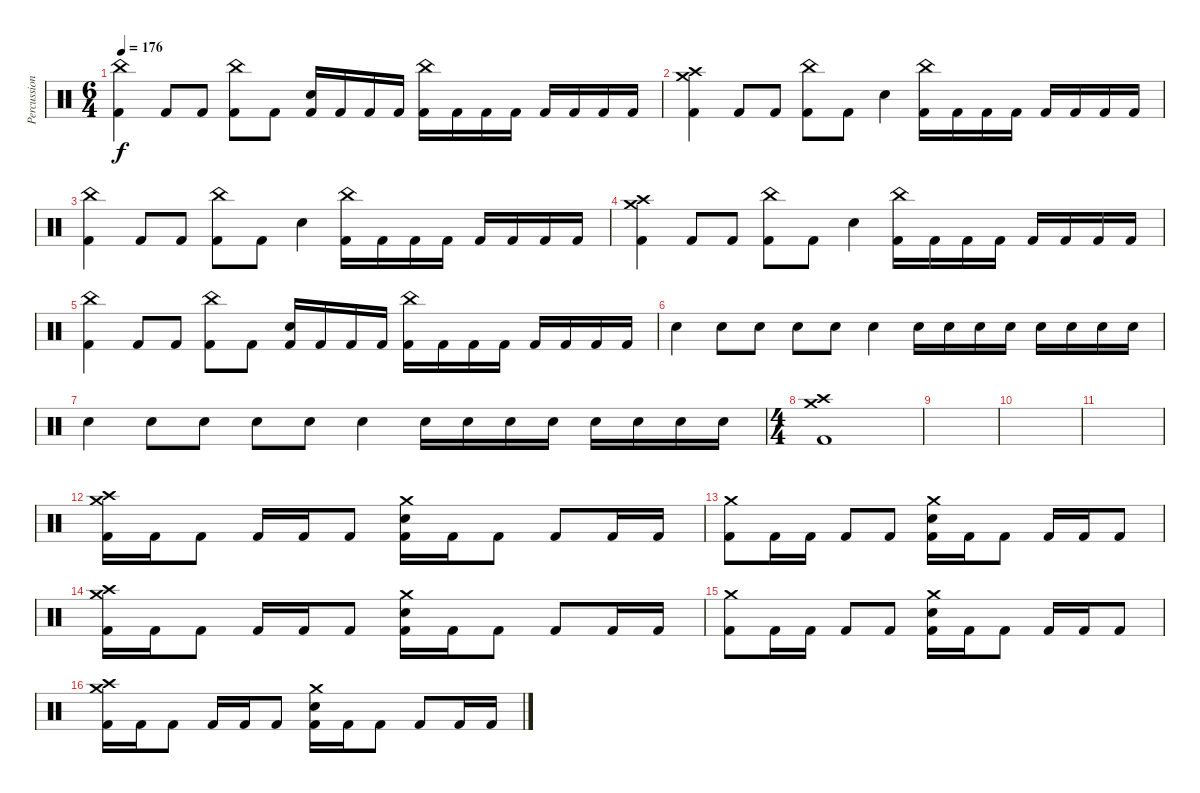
\track ("Percussion" "Percussion") {instrument percussion}
\staff {score}
\articulation defaults
\ts (6 4)
\tempo 176
\clef neutral
\ks c
("China (hit)" "Kick (hit) 2").4{dy f} "Kick (hit) 2".8 "Kick (hit) 2".8 ("China (hit)" "Kick (hit) 2").8 "Kick (hit) 2".8 ("Snare (hit) 2" "Kick (hit) 2").16 "Kick (hit) 2".16 "Kick (hit) 2".16 "Kick (hit) 2".16 ("China (hit)" "Kick (hit) 2").16 "Kick (hit) 2".16 "Kick (hit) 2".16 "Kick (hit) 2".16 "Kick (hit) 2".16 "Kick (hit) 2".16 "Kick (hit) 2".16 "Kick (hit) 2".16 |
("Crash high (hit)" "Crash medium (hit)" "Kick (hit) 2").4 "Kick (hit) 2".8 "Kick (hit) 2".8 ("China (hit)" "Kick (hit) 2").8 "Kick (hit) 2".8 "Snare (hit) 2".4 ("China (hit)" "Kick (hit) 2").16 "Kick (hit) 2".16 "Kick (hit) 2".16 "Kick (hit) 2".16 "Kick (hit) 2".16 "Kick (hit) 2".16 "Kick (hit) 2".16 "Kick (hit) 2".16 |
("China (hit)" "Kick (hit) 2").4 "Kick (hit) 2".8 "Kick (hit) 2".8 ("China (hit)" "Kick (hit) 2").8 "Kick (hit) 2".8 "Snare (hit) 2".4 ("China (hit)" "Kick (hit) 2").16 "Kick (hit) 2".16 "Kick (hit) 2".16 "Kick (hit) 2".16 "Kick (hit) 2".16 "Kick (hit) 2".16 "Kick (hit) 2".16 "Kick (hit) 2".16 |
("Crash high (hit)" "Crash medium (hit)" "Kick (hit) 2").4 "Kick (hit) 2".8 "Kick (hit) 2".8 ("China (hit)" "Kick (hit) 2").8 "Kick (hit) 2".8 "Snare (hit) 2".4 ("China (hit)" "Kick (hit) 2").16 "Kick (hit) 2".16 "Kick (hit) 2".16 "Kick (hit) 2".16 "Kick (hit) 2".16 "Kick (hit) 2".16 "Kick (hit) 2".16 "Kick (hit) 2".16 |
("China (hit)" "Kick (hit) 2").4 "Kick (hit) 2".8 "Kick (hit) 2".8 ("China (hit)" "Kick (hit) 2").8 "Kick (hit) 2".8 ("Snare (hit) 2" "Kick (hit) 2").16 "Kick (hit) 2".16 "Kick (hit) 2".16 "Kick (hit) 2".16 ("China (hit)" "Kick (hit) 2").16 "Kick (hit) 2".16 "Kick (hit) 2".16 "Kick (hit) 2".16 "Kick (hit) 2".16 "Kick (hit) 2".16 "Kick (hit) 2".16 "Kick (hit) 2".16 |
"Snare (hit) 2".4 "Snare (hit) 2".8 "Snare (hit) 2".8 "Snare (hit) 2".8 "Snare (hit) 2".8 "Snare (hit) 2".4 "Snare (hit) 2".16 "Snare (hit) 2".16 "Snare (hit) 2".16 "Snare (hit) 2".16 "Snare (hit) 2".16 "Snare (hit) 2".16 "Snare (hit) 2".16 "Snare (hit) 2".16 |
"Snare (hit) 2".4 "Snare (hit) 2".8 "Snare (hit) 2".8 "Snare (hit) 2".8 "Snare (hit) 2".8 "Snare (hit) 2".4 "Snare (hit) 2".16 "Snare (hit) 2".16 "Snare (hit) 2".16 "Snare (hit) 2".16 "Snare (hit) 2".16 "Snare (hit) 2".16 "Snare (hit) 2".16 "Snare (hit) 2".16 |
\ts (4 4)
("Crash high (hit)" "Crash medium (hit)" "Kick (hit) 2").1 |
|
|
|
("Crash high (hit)" "Crash medium (hit)" "Kick (hit) 2").16 "Kick (hit) 2".16 "Kick (hit) 2".8 "Kick (hit) 2".16 "Kick (hit) 2".16 "Kick (hit) 2".8 ("Crash medium (hit)" "Snare (hit) 2" "Kick (hit) 2").16 "Kick (hit) 2".16 "Kick (hit) 2".8 "Kick (hit) 2".8 "Kick (hit) 2".16 "Kick (hit) 2".16 |
("Crash medium (hit)" "Kick (hit) 2").8 "Kick (hit) 2".16 "Kick (hit) 2".16 "Kick (hit) 2".8 "Kick (hit) 2".8 ("Crash medium (hit)" "Snare (hit) 2" "Kick (hit) 2").16 "Kick (hit) 2".16 "Kick (hit) 2".8 "Kick (hit) 2".16 "Kick (hit) 2".16 "Kick (hit) 2".8 |
("Crash high (hit)" "Crash medium (hit)" "Kick (hit) 2").16 "Kick (hit) 2".16 "Kick (hit) 2".8 "Kick (hit) 2".16 "Kick (hit) 2".16 "Kick (hit) 2".8 ("Crash medium (hit)" "Snare (hit) 2" "Kick (hit) 2").16 "Kick (hit) 2".16 "Kick (hit) 2".8 "Kick (hit) 2".8 "Kick (hit) 2".16 "Kick (hit) 2".16 |
("Crash medium (hit)" "Kick (hit) 2").8 "Kick (hit) 2".16 "Kick (hit) 2".16 "Kick (hit) 2".8 "Kick (hit) 2".8 ("Crash medium (hit)" "Snare (hit) 2" "Kick (hit) 2").16 "Kick (hit) 2".16 "Kick (hit) 2".8 "Kick (hit) 2".16 "Kick (hit) 2".16 "Kick (hit) 2".8 |
("Crash high (hit)" "Crash medium (hit)" "Kick (hit) 2").16 "Kick (hit) 2".16 "Kick (hit) 2".8 "Kick (hit) 2".16 "Kick (hit) 2".16 "Kick (hit) 2".8 ("Crash medium (hit)" "Snare (hit) 2" "Kick (hit) 2").16 "Kick (hit) 2".16 "Kick (hit) 2".8 "Kick (hit) 2".8 "Kick (hit) 2".16 "Kick (hit) 2".16
